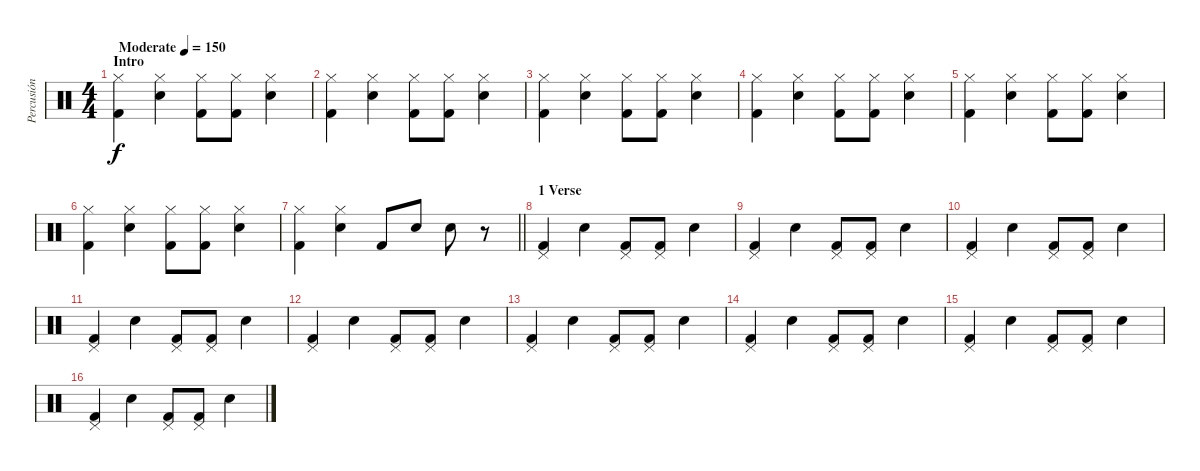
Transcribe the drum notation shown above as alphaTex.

\track ("Percusión" "Percusión") {instrument percussion}
\staff {score}
\articulation defaults
\ts (4 4)
\section ("" "Intro")
\tempo (150 "Moderate")
\clef neutral
\ks c
("Hi-Hat (closed)" "Kick (hit) 2").4{dy f} ("Hi-Hat (closed)" "Snare (hit) 2").4 ("Hi-Hat (closed)" "Kick (hit) 2").8 ("Hi-Hat (closed)" "Kick (hit) 2").8 ("Hi-Hat (closed)" "Snare (hit) 2").4 |
("Hi-Hat (closed)" "Kick (hit) 2").4 ("Hi-Hat (closed)" "Snare (hit) 2").4 ("Hi-Hat (closed)" "Kick (hit) 2").8 ("Hi-Hat (closed)" "Kick (hit) 2").8 ("Hi-Hat (closed)" "Snare (hit) 2").4 |
("Hi-Hat (closed)" "Kick (hit) 2").4 ("Hi-Hat (closed)" "Snare (hit) 2").4 ("Hi-Hat (closed)" "Kick (hit) 2").8 ("Hi-Hat (closed)" "Kick (hit) 2").8 ("Hi-Hat (closed)" "Snare (hit) 2").4 |
("Hi-Hat (closed)" "Kick (hit) 2").4 ("Hi-Hat (closed)" "Snare (hit) 2").4 ("Hi-Hat (closed)" "Kick (hit) 2").8 ("Hi-Hat (closed)" "Kick (hit) 2").8 ("Hi-Hat (closed)" "Snare (hit) 2").4 |
("Hi-Hat (closed)" "Kick (hit) 2").4 ("Hi-Hat (closed)" "Snare (hit) 2").4 ("Hi-Hat (closed)" "Kick (hit) 2").8 ("Hi-Hat (closed)" "Kick (hit) 2").8 ("Hi-Hat (closed)" "Snare (hit) 2").4 |
("Hi-Hat (closed)" "Kick (hit) 2").4 ("Hi-Hat (closed)" "Snare (hit) 2").4 ("Hi-Hat (closed)" "Kick (hit) 2").8 ("Hi-Hat (closed)" "Kick (hit) 2").8 ("Hi-Hat (closed)" "Snare (hit) 2").4 |
\barLineRight lightlight
("Hi-Hat (closed)" "Kick (hit) 2").4 ("Hi-Hat (closed)" "Snare (hit) 2").4 "Kick (hit) 2".8 "Snare (hit) 2".8 "Snare (hit) 2".8 r.8 |
\section ("" "1 Verse")
("Pedal Hi-Hat (hit)" "Kick (hit) 2").4 "Snare (hit) 2".4 ("Pedal Hi-Hat (hit)" "Kick (hit) 2").8 ("Pedal Hi-Hat (hit)" "Kick (hit) 2").8 "Snare (hit) 2".4 |
("Pedal Hi-Hat (hit)" "Kick (hit) 2").4 "Snare (hit) 2".4 ("Pedal Hi-Hat (hit)" "Kick (hit) 2").8 ("Pedal Hi-Hat (hit)" "Kick (hit) 2").8 "Snare (hit) 2".4 |
("Pedal Hi-Hat (hit)" "Kick (hit) 2").4 "Snare (hit) 2".4 ("Pedal Hi-Hat (hit)" "Kick (hit) 2").8 ("Pedal Hi-Hat (hit)" "Kick (hit) 2").8 "Snare (hit) 2".4 |
("Pedal Hi-Hat (hit)" "Kick (hit) 2").4 "Snare (hit) 2".4 ("Pedal Hi-Hat (hit)" "Kick (hit) 2").8 ("Pedal Hi-Hat (hit)" "Kick (hit) 2").8 "Snare (hit) 2".4 |
("Pedal Hi-Hat (hit)" "Kick (hit) 2").4 "Snare (hit) 2".4 ("Pedal Hi-Hat (hit)" "Kick (hit) 2").8 ("Pedal Hi-Hat (hit)" "Kick (hit) 2").8 "Snare (hit) 2".4 |
("Pedal Hi-Hat (hit)" "Kick (hit) 2").4 "Snare (hit) 2".4 ("Pedal Hi-Hat (hit)" "Kick (hit) 2").8 ("Pedal Hi-Hat (hit)" "Kick (hit) 2").8 "Snare (hit) 2".4 |
("Pedal Hi-Hat (hit)" "Kick (hit) 2").4 "Snare (hit) 2".4 ("Pedal Hi-Hat (hit)" "Kick (hit) 2").8 ("Pedal Hi-Hat (hit)" "Kick (hit) 2").8 "Snare (hit) 2".4 |
("Pedal Hi-Hat (hit)" "Kick (hit) 2").4 "Snare (hit) 2".4 ("Pedal Hi-Hat (hit)" "Kick (hit) 2").8 ("Pedal Hi-Hat (hit)" "Kick (hit) 2").8 "Snare (hit) 2".4 |
("Pedal Hi-Hat (hit)" "Kick (hit) 2").4 "Snare (hit) 2".4 ("Pedal Hi-Hat (hit)" "Kick (hit) 2").8 ("Pedal Hi-Hat (hit)" "Kick (hit) 2").8 "Snare (hit) 2".4
